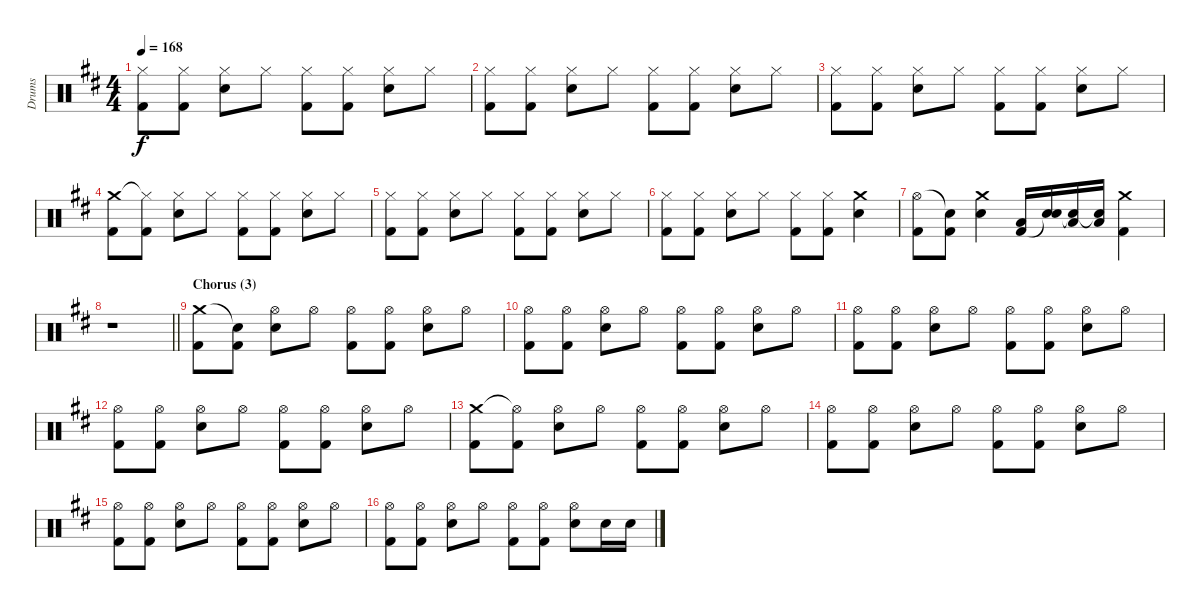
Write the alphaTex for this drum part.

\track ("Drums" "Drums") {instrument percussion}
\staff {score}
\articulation defaults
\ts (4 4)
\tempo 168
\clef neutral
\ks d
("Hi-Hat (closed)" "Kick (hit) 2").8{dy f} ("Hi-Hat (closed)" "Kick (hit) 2").8 ("Hi-Hat (closed)" "Electric Snare (hit)").8 "Hi-Hat (closed)".8 ("Hi-Hat (closed)" "Kick (hit) 2").8 ("Hi-Hat (closed)" "Kick (hit) 2").8 ("Hi-Hat (closed)" "Electric Snare (hit)").8 "Hi-Hat (closed)".8 |
("Hi-Hat (closed)" "Kick (hit) 2").8 ("Hi-Hat (closed)" "Kick (hit) 2").8 ("Hi-Hat (closed)" "Electric Snare (hit)").8 "Hi-Hat (closed)".8 ("Hi-Hat (closed)" "Kick (hit) 2").8 ("Hi-Hat (closed)" "Kick (hit) 2").8 ("Hi-Hat (closed)" "Electric Snare (hit)").8 "Hi-Hat (closed)".8 |
("Hi-Hat (closed)" "Kick (hit) 2").8 ("Hi-Hat (closed)" "Kick (hit) 2").8 ("Hi-Hat (closed)" "Electric Snare (hit)").8 "Hi-Hat (closed)".8 ("Hi-Hat (closed)" "Kick (hit) 2").8 ("Hi-Hat (closed)" "Kick (hit) 2").8 ("Hi-Hat (closed)" "Electric Snare (hit)").8 "Hi-Hat (closed)".8 |
("Crash medium (hit)" "Kick (hit) 2").8 ("Hi-Hat (closed)"{t} "Kick (hit) 2").8 ("Hi-Hat (closed)" "Electric Snare (hit)").8 "Hi-Hat (closed)".8 ("Hi-Hat (closed)" "Kick (hit) 2").8 ("Hi-Hat (closed)" "Kick (hit) 2").8 ("Hi-Hat (closed)" "Electric Snare (hit)").8 "Hi-Hat (closed)".8 |
("Hi-Hat (closed)" "Kick (hit) 2").8 ("Hi-Hat (closed)" "Kick (hit) 2").8 ("Hi-Hat (closed)" "Electric Snare (hit)").8 "Hi-Hat (closed)".8 ("Hi-Hat (closed)" "Kick (hit) 2").8 ("Hi-Hat (closed)" "Kick (hit) 2").8 ("Hi-Hat (closed)" "Electric Snare (hit)").8 "Hi-Hat (closed)".8 |
("Hi-Hat (closed)" "Kick (hit) 2").8 ("Hi-Hat (closed)" "Kick (hit) 2").8 ("Hi-Hat (closed)" "Electric Snare (hit)").8 "Hi-Hat (closed)".8 ("Hi-Hat (closed)" "Kick (hit) 2").8 ("Hi-Hat (closed)" "Kick (hit) 2").8 ("Crash medium (hit)" "Electric Snare (hit)").4 |
("Hi-Hat (open)" "Kick (hit) 2").8 ("Snare (hit)"{t} "Kick (hit) 2").8 ("Crash medium (hit)" "Electric Snare (hit)").4 ("Low Tom (hit)" "Kick (hit) 2").16 ("Electric Snare (hit)" "Snare (hit)"{t}).16 ("Low Floor Tom (hit)" "Snare (hit)"{t}).16 ("Low Floor Tom (hit)" "Snare (hit)"{t}).16 ("Crash medium (hit)" "Kick (hit) 2").4 |
\barLineRight lightlight
r.1 |
\section ("" "Chorus (3)")
("Crash medium (hit)" "Kick (hit) 2").8 ("Snare (hit)"{t} "Kick (hit) 2").8 ("Hi-Hat (open)" "Electric Snare (hit)").8 "Hi-Hat (open)".8 ("Hi-Hat (open)" "Kick (hit) 2").8 ("Hi-Hat (open)" "Kick (hit) 2").8 ("Hi-Hat (open)" "Electric Snare (hit)").8 "Hi-Hat (open)".8 |
("Hi-Hat (open)" "Kick (hit) 2").8 ("Hi-Hat (open)" "Kick (hit) 2").8 ("Hi-Hat (open)" "Electric Snare (hit)").8 "Hi-Hat (open)".8 ("Hi-Hat (open)" "Kick (hit) 2").8 ("Hi-Hat (open)" "Kick (hit) 2").8 ("Hi-Hat (open)" "Electric Snare (hit)").8 "Hi-Hat (open)".8 |
("Hi-Hat (open)" "Kick (hit) 2").8 ("Hi-Hat (open)" "Kick (hit) 2").8 ("Hi-Hat (open)" "Electric Snare (hit)").8 "Hi-Hat (open)".8 ("Hi-Hat (open)" "Kick (hit) 2").8 ("Hi-Hat (open)" "Kick (hit) 2").8 ("Hi-Hat (open)" "Electric Snare (hit)").8 "Hi-Hat (open)".8 |
("Hi-Hat (open)" "Kick (hit) 2").8 ("Hi-Hat (open)" "Kick (hit) 2").8 ("Hi-Hat (open)" "Electric Snare (hit)").8 "Hi-Hat (open)".8 ("Hi-Hat (open)" "Kick (hit) 2").8 ("Hi-Hat (open)" "Kick (hit) 2").8 ("Hi-Hat (open)" "Electric Snare (hit)").8 "Hi-Hat (open)".8 |
("Crash medium (hit)" "Kick (hit) 2").8 ("Hi-Hat (open)"{t} "Kick (hit) 2").8 ("Hi-Hat (open)" "Electric Snare (hit)").8 "Hi-Hat (open)".8 ("Hi-Hat (open)" "Kick (hit) 2").8 ("Hi-Hat (open)" "Kick (hit) 2").8 ("Hi-Hat (open)" "Electric Snare (hit)").8 "Hi-Hat (open)".8 |
("Hi-Hat (open)" "Kick (hit) 2").8 ("Hi-Hat (open)" "Kick (hit) 2").8 ("Hi-Hat (open)" "Electric Snare (hit)").8 "Hi-Hat (open)".8 ("Hi-Hat (open)" "Kick (hit) 2").8 ("Hi-Hat (open)" "Kick (hit) 2").8 ("Hi-Hat (open)" "Electric Snare (hit)").8 "Hi-Hat (open)".8 |
("Hi-Hat (open)" "Kick (hit) 2").8 ("Hi-Hat (open)" "Kick (hit) 2").8 ("Hi-Hat (open)" "Electric Snare (hit)").8 "Hi-Hat (open)".8 ("Hi-Hat (open)" "Kick (hit) 2").8 ("Hi-Hat (open)" "Kick (hit) 2").8 ("Hi-Hat (open)" "Electric Snare (hit)").8 "Hi-Hat (open)".8 |
("Hi-Hat (open)" "Kick (hit) 2").8 ("Hi-Hat (open)" "Kick (hit) 2").8 ("Hi-Hat (open)" "Electric Snare (hit)").8 "Hi-Hat (open)".8 ("Hi-Hat (open)" "Kick (hit) 2").8 ("Hi-Hat (open)" "Kick (hit) 2").8 ("Hi-Hat (open)" "Electric Snare (hit)").8 "Electric Snare (hit)".16 "Electric Snare (hit)".16
